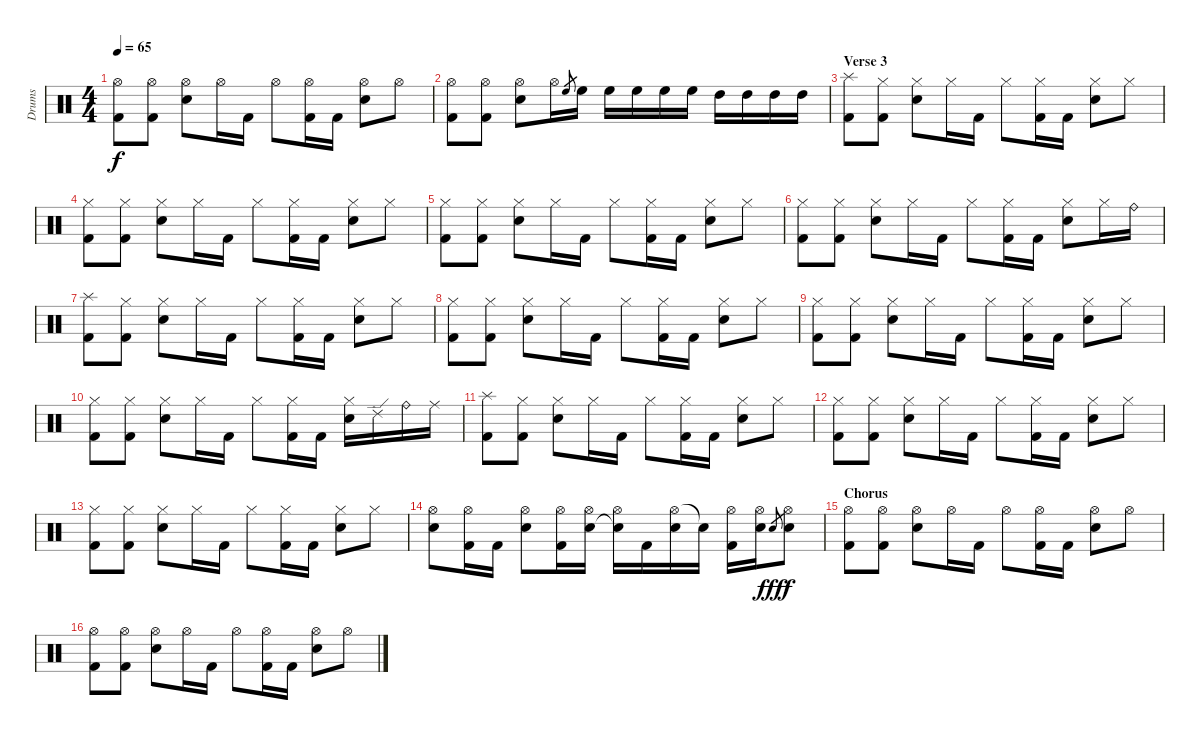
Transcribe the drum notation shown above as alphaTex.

\track ("Drums" "Drums") {instrument percussion}
\staff {score}
\articulation defaults
\ts (4 4)
\tempo 65
\clef neutral
\ks c
("Hi-Hat (open)" "Kick (hit) 2").8{dy f} ("Hi-Hat (open)" "Kick (hit) 2").8 ("Hi-Hat (open)" "Snare (hit) 2").8 "Hi-Hat (open)".16 "Kick (hit) 2".16 "Hi-Hat (open)".8 ("Hi-Hat (open)" "Kick (hit) 2").16 "Kick (hit) 2".16 ("Hi-Hat (open)" "Snare (hit) 2").8 "Hi-Hat (open)".8 |
("Hi-Hat (open)" "Kick (hit) 2").8 ("Hi-Hat (open)" "Kick (hit) 2").8 ("Hi-Hat (open)" "Snare (hit) 2").8 "Hi-Hat (open)".16 "High Floor Tom (hit)"{sl}.8{gr} "High Floor Tom (hit)".16 "High Floor Tom (hit)".16 "High Floor Tom (hit)".16 "High Floor Tom (hit)".16 "High Floor Tom (hit)".16 "High Tom (hit)".16 "High Tom (hit)".16 "High Tom (hit)".16 "High Tom (hit)".16 |
\section ("" "Verse 3")
("Splash (hit)" "Kick (hit) 2").8 ("Hi-Hat (closed)" "Kick (hit) 2").8 ("Hi-Hat (closed)" "Snare (hit) 2").8 "Hi-Hat (closed)".16 "Kick (hit) 2".16 "Hi-Hat (closed)".8 ("Hi-Hat (closed)" "Kick (hit) 2").16 "Kick (hit) 2".16 ("Hi-Hat (closed)" "Snare (hit) 2").8 "Hi-Hat (closed)".8 |
("Hi-Hat (closed)" "Kick (hit) 2").8 ("Hi-Hat (closed)" "Kick (hit) 2").8 ("Hi-Hat (closed)" "Snare (hit) 2").8 "Hi-Hat (closed)".16 "Kick (hit) 2".16 "Hi-Hat (closed)".8 ("Hi-Hat (closed)" "Kick (hit) 2").16 "Kick (hit) 2".16 ("Hi-Hat (closed)" "Snare (hit) 2").8 "Hi-Hat (closed)".8 |
("Hi-Hat (closed)" "Kick (hit) 2").8 ("Hi-Hat (closed)" "Kick (hit) 2").8 ("Hi-Hat (closed)" "Snare (hit) 2").8 "Hi-Hat (closed)".16 "Kick (hit) 2".16 "Hi-Hat (closed)".8 ("Hi-Hat (closed)" "Kick (hit) 2").16 "Kick (hit) 2".16 ("Hi-Hat (closed)" "Snare (hit) 2").8 "Hi-Hat (closed)".8 |
("Hi-Hat (closed)" "Kick (hit) 2").8 ("Hi-Hat (closed)" "Kick (hit) 2").8 ("Hi-Hat (closed)" "Snare (hit) 2").8 "Hi-Hat (closed)".16 "Kick (hit) 2".16 "Hi-Hat (closed)".8 ("Hi-Hat (closed)" "Kick (hit) 2").16 "Kick (hit) 2".16 ("Hi-Hat (closed)" "Snare (hit) 2").8 "Hi-Hat (closed)".16 "Ride (bell)".16 |
("Splash (hit)" "Kick (hit) 2").8 ("Hi-Hat (closed)" "Kick (hit) 2").8 ("Hi-Hat (closed)" "Snare (hit) 2").8 "Hi-Hat (closed)".16 "Kick (hit) 2".16 "Hi-Hat (closed)".8 ("Hi-Hat (closed)" "Kick (hit) 2").16 "Kick (hit) 2".16 ("Hi-Hat (closed)" "Snare (hit) 2").8 "Hi-Hat (closed)".8 |
("Hi-Hat (closed)" "Kick (hit) 2").8 ("Hi-Hat (closed)" "Kick (hit) 2").8 ("Hi-Hat (closed)" "Snare (hit) 2").8 "Hi-Hat (closed)".16 "Kick (hit) 2".16 "Hi-Hat (closed)".8 ("Hi-Hat (closed)" "Kick (hit) 2").16 "Kick (hit) 2".16 ("Hi-Hat (closed)" "Snare (hit) 2").8 "Hi-Hat (closed)".8 |
("Hi-Hat (closed)" "Kick (hit) 2").8{volume 6} ("Hi-Hat (closed)" "Kick (hit) 2").8 ("Hi-Hat (closed)" "Snare (hit) 2").8 "Hi-Hat (closed)".16 "Kick (hit) 2".16 "Hi-Hat (closed)".8 ("Hi-Hat (closed)" "Kick (hit) 2").16 "Kick (hit) 2".16 ("Hi-Hat (closed)" "Snare (hit) 2").8 "Hi-Hat (closed)".8 |
("Hi-Hat (closed)" "Kick (hit) 2").8 ("Hi-Hat (closed)" "Kick (hit) 2").8 ("Hi-Hat (closed)" "Snare (hit) 2").8 "Hi-Hat (closed)".16 "Kick (hit) 2".16 "Hi-Hat (closed)".8 ("Hi-Hat (closed)" "Kick (hit) 2").16 "Kick (hit) 2".16 ("Hi-Hat (closed)" "Snare (hit) 2").16 "Ride (edge) 2".16 "Ride (bell)".16 "Ride (middle)".16 |
("Splash (hit)" "Kick (hit) 2").8 ("Hi-Hat (closed)" "Kick (hit) 2").8 ("Hi-Hat (closed)" "Snare (hit) 2").8 "Hi-Hat (closed)".16 "Kick (hit) 2".16 "Hi-Hat (closed)".8 ("Hi-Hat (closed)" "Kick (hit) 2").16 "Kick (hit) 2".16 ("Hi-Hat (closed)" "Snare (hit) 2").8 "Hi-Hat (closed)".8 |
("Hi-Hat (closed)" "Kick (hit) 2").8 ("Hi-Hat (closed)" "Kick (hit) 2").8 ("Hi-Hat (closed)" "Snare (hit) 2").8 "Hi-Hat (closed)".16 "Kick (hit) 2".16 "Hi-Hat (closed)".8 ("Hi-Hat (closed)" "Kick (hit) 2").16 "Kick (hit) 2".16 ("Hi-Hat (closed)" "Snare (hit) 2").8 "Hi-Hat (closed)".8 |
("Hi-Hat (closed)" "Kick (hit) 2").8 ("Hi-Hat (closed)" "Kick (hit) 2").8 ("Hi-Hat (closed)" "Snare (hit) 2").8 "Hi-Hat (closed)".16 "Kick (hit) 2".16 "Hi-Hat (closed)".8 ("Hi-Hat (closed)" "Kick (hit) 2").16 "Kick (hit) 2".16 ("Hi-Hat (closed)" "Snare (hit) 2").8 "Hi-Hat (closed)".8 |
("Hi-Hat (open)" "Snare (hit) 2").8{volume 13} ("Hi-Hat (open)" "Kick (hit) 2").16 "Kick (hit) 2".16 ("Hi-Hat (open)" "Snare (hit) 2").8 ("Hi-Hat (open)" "Kick (hit) 2").16 ("Hi-Hat (open)" "Snare (hit) 2").16 ("Hi-Hat (open)" "Snare (hit)"{t}).16 "Kick (hit) 2".16 ("Hi-Hat (open)" "Snare (hit) 2").16 "Snare (hit)"{t}.16 ("Hi-Hat (open)" "Kick (hit) 2").16 ("Hi-Hat (open)" "Snare (hit) 2").16 "Snare (hit) 2"{sl}.8{gr dy fff} ("Hi-Hat (open)" "Snare (hit) 2").8{dy f} |
\section ("" "Chorus")
("Hi-Hat (open)" "Kick (hit) 2").8 ("Hi-Hat (open)" "Kick (hit) 2").8 ("Hi-Hat (open)" "Snare (hit) 2").8 "Hi-Hat (open)".16 "Kick (hit) 2".16 "Hi-Hat (open)".8 ("Hi-Hat (open)" "Kick (hit) 2").16 "Kick (hit) 2".16 ("Hi-Hat (open)" "Snare (hit) 2").8 "Hi-Hat (open)".8 |
("Hi-Hat (open)" "Kick (hit) 2").8 ("Hi-Hat (open)" "Kick (hit) 2").8 ("Hi-Hat (open)" "Snare (hit) 2").8 "Hi-Hat (open)".16 "Kick (hit) 2".16 "Hi-Hat (open)".8 ("Hi-Hat (open)" "Kick (hit) 2").16 "Kick (hit) 2".16 ("Hi-Hat (open)" "Snare (hit) 2").8 "Hi-Hat (open)".8
